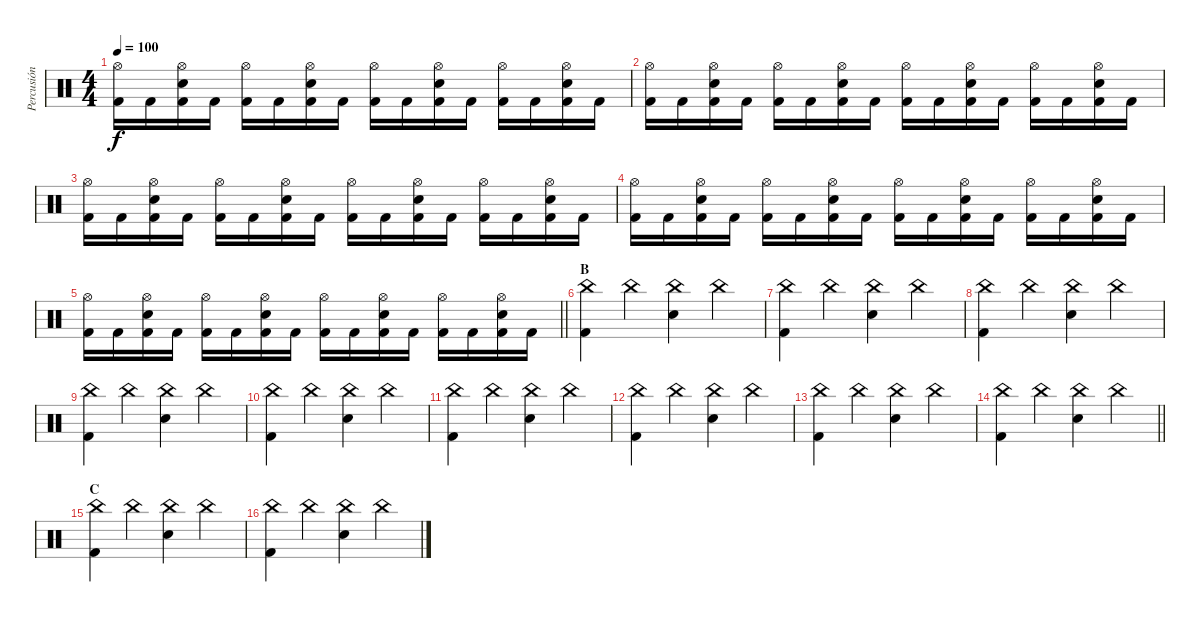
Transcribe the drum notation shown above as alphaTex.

\track ("Percusión" "Percusión") {instrument percussion bank 1}
\staff {score}
\articulation defaults
\ts (4 4)
\tempo 100
\clef neutral
\ks c
("Hi-Hat (open)" "Kick (hit) 2").16{dy f} "Kick (hit) 2".16 ("Snare (hit) 2" "Hi-Hat (open)" "Kick (hit) 2").16 "Kick (hit) 2".16 ("Hi-Hat (open)" "Kick (hit) 2").16 "Kick (hit) 2".16 ("Snare (hit) 2" "Hi-Hat (open)" "Kick (hit) 2").16 "Kick (hit) 2".16 ("Hi-Hat (open)" "Kick (hit) 2").16 "Kick (hit) 2".16 ("Snare (hit) 2" "Hi-Hat (open)" "Kick (hit) 2").16 "Kick (hit) 2".16 ("Hi-Hat (open)" "Kick (hit) 2").16 "Kick (hit) 2".16 ("Snare (hit) 2" "Hi-Hat (open)" "Kick (hit) 2").16 "Kick (hit) 2".16 |
("Hi-Hat (open)" "Kick (hit) 2").16 "Kick (hit) 2".16 ("Snare (hit) 2" "Hi-Hat (open)" "Kick (hit) 2").16 "Kick (hit) 2".16 ("Hi-Hat (open)" "Kick (hit) 2").16 "Kick (hit) 2".16 ("Snare (hit) 2" "Hi-Hat (open)" "Kick (hit) 2").16 "Kick (hit) 2".16 ("Hi-Hat (open)" "Kick (hit) 2").16 "Kick (hit) 2".16 ("Snare (hit) 2" "Hi-Hat (open)" "Kick (hit) 2").16 "Kick (hit) 2".16 ("Hi-Hat (open)" "Kick (hit) 2").16 "Kick (hit) 2".16 ("Snare (hit) 2" "Hi-Hat (open)" "Kick (hit) 2").16 "Kick (hit) 2".16 |
("Hi-Hat (open)" "Kick (hit) 2").16 "Kick (hit) 2".16 ("Snare (hit) 2" "Hi-Hat (open)" "Kick (hit) 2").16 "Kick (hit) 2".16 ("Hi-Hat (open)" "Kick (hit) 2").16 "Kick (hit) 2".16 ("Snare (hit) 2" "Hi-Hat (open)" "Kick (hit) 2").16 "Kick (hit) 2".16 ("Hi-Hat (open)" "Kick (hit) 2").16 "Kick (hit) 2".16 ("Snare (hit) 2" "Hi-Hat (open)" "Kick (hit) 2").16 "Kick (hit) 2".16 ("Hi-Hat (open)" "Kick (hit) 2").16 "Kick (hit) 2".16 ("Snare (hit) 2" "Hi-Hat (open)" "Kick (hit) 2").16 "Kick (hit) 2".16 |
("Hi-Hat (open)" "Kick (hit) 2").16 "Kick (hit) 2".16 ("Snare (hit) 2" "Hi-Hat (open)" "Kick (hit) 2").16 "Kick (hit) 2".16 ("Hi-Hat (open)" "Kick (hit) 2").16 "Kick (hit) 2".16 ("Snare (hit) 2" "Hi-Hat (open)" "Kick (hit) 2").16 "Kick (hit) 2".16 ("Hi-Hat (open)" "Kick (hit) 2").16 "Kick (hit) 2".16 ("Snare (hit) 2" "Hi-Hat (open)" "Kick (hit) 2").16 "Kick (hit) 2".16 ("Hi-Hat (open)" "Kick (hit) 2").16 "Kick (hit) 2".16 ("Snare (hit) 2" "Hi-Hat (open)" "Kick (hit) 2").16 "Kick (hit) 2".16 |
\barLineRight lightlight
("Hi-Hat (open)" "Kick (hit) 2").16 "Kick (hit) 2".16 ("Snare (hit) 2" "Hi-Hat (open)" "Kick (hit) 2").16 "Kick (hit) 2".16 ("Hi-Hat (open)" "Kick (hit) 2").16 "Kick (hit) 2".16 ("Snare (hit) 2" "Hi-Hat (open)" "Kick (hit) 2").16 "Kick (hit) 2".16 ("Hi-Hat (open)" "Kick (hit) 2").16 "Kick (hit) 2".16 ("Snare (hit) 2" "Hi-Hat (open)" "Kick (hit) 2").16 "Kick (hit) 2".16 ("Hi-Hat (open)" "Kick (hit) 2").16 "Kick (hit) 2".16 ("Snare (hit) 2" "Hi-Hat (open)" "Kick (hit) 2").16 "Kick (hit) 2".16 |
\section ("" "B")
("China (hit)" "Kick (hit) 2").4 "China (hit)".4 ("China (hit)" "Snare (hit) 2").4 "China (hit)".4 |
("China (hit)" "Kick (hit) 2").4 "China (hit)".4 ("China (hit)" "Snare (hit) 2").4 "China (hit)".4 |
("China (hit)" "Kick (hit) 2").4 "China (hit)".4 ("China (hit)" "Snare (hit) 2").4 "China (hit)".4 |
("China (hit)" "Kick (hit) 2").4 "China (hit)".4 ("China (hit)" "Snare (hit) 2").4 "China (hit)".4 |
("China (hit)" "Kick (hit) 2").4 "China (hit)".4 ("China (hit)" "Snare (hit) 2").4 "China (hit)".4 |
("China (hit)" "Kick (hit) 2").4 "China (hit)".4 ("China (hit)" "Snare (hit) 2").4 "China (hit)".4 |
("China (hit)" "Kick (hit) 2").4 "China (hit)".4 ("China (hit)" "Snare (hit) 2").4 "China (hit)".4 |
("China (hit)" "Kick (hit) 2").4 "China (hit)".4 ("China (hit)" "Snare (hit) 2").4 "China (hit)".4 |
\barLineRight lightlight
("China (hit)" "Kick (hit) 2").4 "China (hit)".4 ("China (hit)" "Snare (hit) 2").4 "China (hit)".4 |
\section ("" "C")
("China (hit)" "Kick (hit) 2").4 "China (hit)".4 ("China (hit)" "Snare (hit) 2").4 "China (hit)".4 |
("China (hit)" "Kick (hit) 2").4 "China (hit)".4 ("China (hit)" "Snare (hit) 2").4 "China (hit)".4
